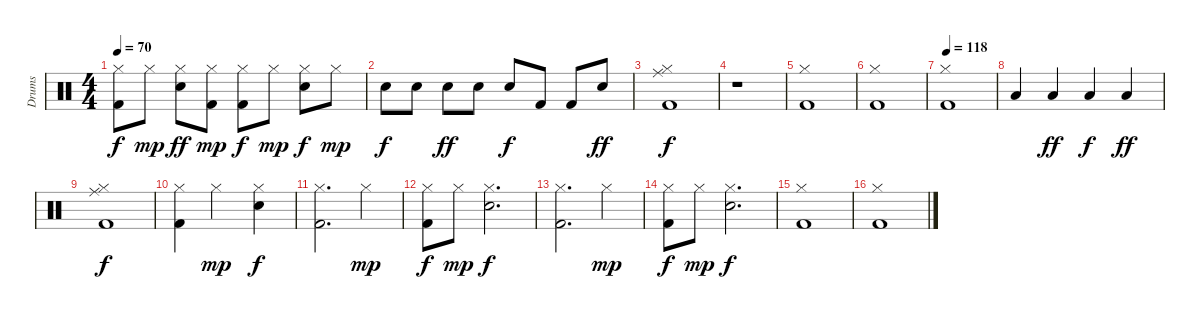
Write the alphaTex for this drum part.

\track ("Drums" "Drums") {instrument percussion}
\staff {score}
\articulation defaults
\ts (4 4)
\tempo 70
\clef neutral
\ks c
("Kick (hit) 2" "Hi-Hat (closed)").8{dy f} "Hi-Hat (closed)".8{dy mp} ("Snare (hit) 2" "Hi-Hat (closed)").8{dy ff} ("Kick (hit) 2" "Hi-Hat (closed)").8{dy mp} ("Kick (hit) 2" "Hi-Hat (closed)").8{dy f} "Hi-Hat (closed)".8{dy mp} ("Snare (hit) 2" "Hi-Hat (closed)").8{dy f} "Hi-Hat (closed)".8{dy mp} |
"Snare (hit) 2".8{dy f} "Snare (hit) 2".8 "Snare (hit) 2".8{dy ff} "Snare (hit) 2".8 "Snare (hit) 2".8{dy f} "Kick (hit) 2".8 "Kick (hit) 2".8 "Snare (hit) 2".8{dy ff} |
("Kick (hit) 2" "Hi-Hat (closed)" "Ride (middle)").1{dy f} |
r.1 |
("Kick (hit) 2" "Hi-Hat (closed)").1 |
("Kick (hit) 2" "Hi-Hat (closed)").1 |
\tempo 118
("Kick (hit) 2" "Hi-Hat (closed)").1 |
"Low Tom (hit)".4 "Low Tom (hit)".4{dy ff} "Low Floor Tom (hit)".4{dy f} "Low Floor Tom (hit)".4{dy ff} |
("Kick (hit) 2" "Hi-Hat (closed)" "Ride (middle)").1{dy f} |
("Kick (hit) 2" "Hi-Hat (closed)").4 "Hi-Hat (closed)".2{dy mp} ("Snare (hit) 2" "Hi-Hat (closed)").4{dy f} |
("Kick (hit) 2" "Hi-Hat (closed)").2{d} "Hi-Hat (closed)".4{dy mp} |
("Kick (hit) 2" "Hi-Hat (closed)").8{dy f} "Hi-Hat (closed)".8{dy mp} ("Snare (hit) 2" "Hi-Hat (closed)").2{d dy f} |
("Kick (hit) 2" "Hi-Hat (closed)").2{d} "Hi-Hat (closed)".4{dy mp} |
("Kick (hit) 2" "Hi-Hat (closed)").8{dy f} "Hi-Hat (closed)".8{dy mp} ("Snare (hit) 2" "Hi-Hat (closed)").2{d dy f} |
("Kick (hit) 2" "Hi-Hat (closed)").1 |
("Kick (hit) 2" "Hi-Hat (closed)").1
